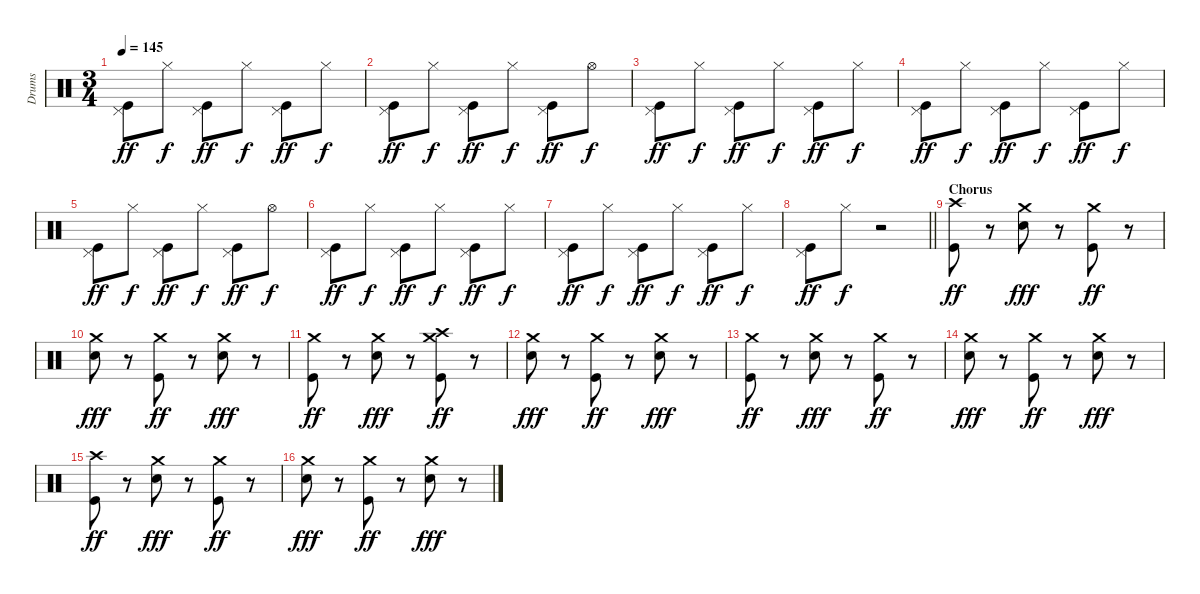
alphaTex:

\track ("Drums" "Drums") {instrument percussion}
\staff {score}
\articulation defaults
\ts (3 4)
\tempo 145
\clef neutral
\ks c
("Pedal Hi-Hat (hit)" "Kick (hit)").8{dy ff} "Hi-Hat (closed)".8{dy f} ("Pedal Hi-Hat (hit)" "Kick (hit)").8{dy ff} "Hi-Hat (closed)".8{dy f} ("Pedal Hi-Hat (hit)" "Kick (hit)").8{dy ff} "Hi-Hat (closed)".8{dy f} |
("Pedal Hi-Hat (hit)" "Kick (hit)").8{dy ff} "Hi-Hat (closed)".8{dy f} ("Pedal Hi-Hat (hit)" "Kick (hit)").8{dy ff} "Hi-Hat (closed)".8{dy f} ("Pedal Hi-Hat (hit)" "Kick (hit)").8{dy ff} "Hi-Hat (open)".8{dy f} |
("Pedal Hi-Hat (hit)" "Kick (hit)").8{dy ff} "Hi-Hat (closed)".8{dy f} ("Pedal Hi-Hat (hit)" "Kick (hit)").8{dy ff} "Hi-Hat (closed)".8{dy f} ("Pedal Hi-Hat (hit)" "Kick (hit)").8{dy ff} "Hi-Hat (closed)".8{dy f} |
("Pedal Hi-Hat (hit)" "Kick (hit)").8{dy ff} "Hi-Hat (closed)".8{dy f} ("Pedal Hi-Hat (hit)" "Kick (hit)").8{dy ff} "Hi-Hat (closed)".8{dy f} ("Pedal Hi-Hat (hit)" "Kick (hit)").8{dy ff} "Hi-Hat (closed)".8{dy f} |
("Pedal Hi-Hat (hit)" "Kick (hit)").8{dy ff} "Hi-Hat (closed)".8{dy f} ("Pedal Hi-Hat (hit)" "Kick (hit)").8{dy ff} "Hi-Hat (closed)".8{dy f} ("Pedal Hi-Hat (hit)" "Kick (hit)").8{dy ff} "Hi-Hat (open)".8{dy f} |
("Pedal Hi-Hat (hit)" "Kick (hit)").8{dy ff} "Hi-Hat (closed)".8{dy f} ("Pedal Hi-Hat (hit)" "Kick (hit)").8{dy ff} "Hi-Hat (closed)".8{dy f} ("Pedal Hi-Hat (hit)" "Kick (hit)").8{dy ff} "Hi-Hat (closed)".8{dy f} |
("Pedal Hi-Hat (hit)" "Kick (hit)").8{dy ff} "Hi-Hat (closed)".8{dy f} ("Pedal Hi-Hat (hit)" "Kick (hit)").8{dy ff} "Hi-Hat (closed)".8{dy f} ("Pedal Hi-Hat (hit)" "Kick (hit)").8{dy ff} "Hi-Hat (closed)".8{dy f} |
\barLineRight lightlight
("Pedal Hi-Hat (hit)" "Kick (hit)").8{dy ff} "Hi-Hat (closed)".8{dy f} r.2 |
\section ("" "Chorus")
("Crash high (hit)" "Kick (hit)").8{dy ff} r.8 ("Crash medium (hit)" "Electric Snare (hit)").8{dy fff} r.8 ("Crash medium (hit)" "Kick (hit)").8{dy ff} r.8 |
("Crash medium (hit)" "Electric Snare (hit)").8{dy fff} r.8 ("Crash medium (hit)" "Kick (hit)").8{dy ff} r.8 ("Crash medium (hit)" "Electric Snare (hit)").8{dy fff} r.8 |
("Crash medium (hit)" "Kick (hit)").8{dy ff} r.8 ("Crash medium (hit)" "Electric Snare (hit)").8{dy fff} r.8 ("Crash high (hit)" "Crash medium (hit)" "Kick (hit)").8{dy ff} r.8 |
("Crash medium (hit)" "Electric Snare (hit)").8{dy fff} r.8 ("Crash medium (hit)" "Kick (hit)").8{dy ff} r.8 ("Crash medium (hit)" "Electric Snare (hit)").8{dy fff} r.8 |
("Crash medium (hit)" "Kick (hit)").8{dy ff} r.8 ("Crash medium (hit)" "Electric Snare (hit)").8{dy fff} r.8 ("Crash medium (hit)" "Kick (hit)").8{dy ff} r.8 |
("Crash medium (hit)" "Electric Snare (hit)").8{dy fff} r.8 ("Crash medium (hit)" "Kick (hit)").8{dy ff} r.8 ("Crash medium (hit)" "Electric Snare (hit)").8{dy fff} r.8 |
("Crash high (hit)" "Kick (hit)").8{dy ff} r.8 ("Crash medium (hit)" "Electric Snare (hit)").8{dy fff} r.8 ("Crash medium (hit)" "Kick (hit)").8{dy ff} r.8 |
("Crash medium (hit)" "Electric Snare (hit)").8{dy fff} r.8 ("Crash medium (hit)" "Kick (hit)").8{dy ff} r.8 ("Crash medium (hit)" "Electric Snare (hit)").8{dy fff} r.8
